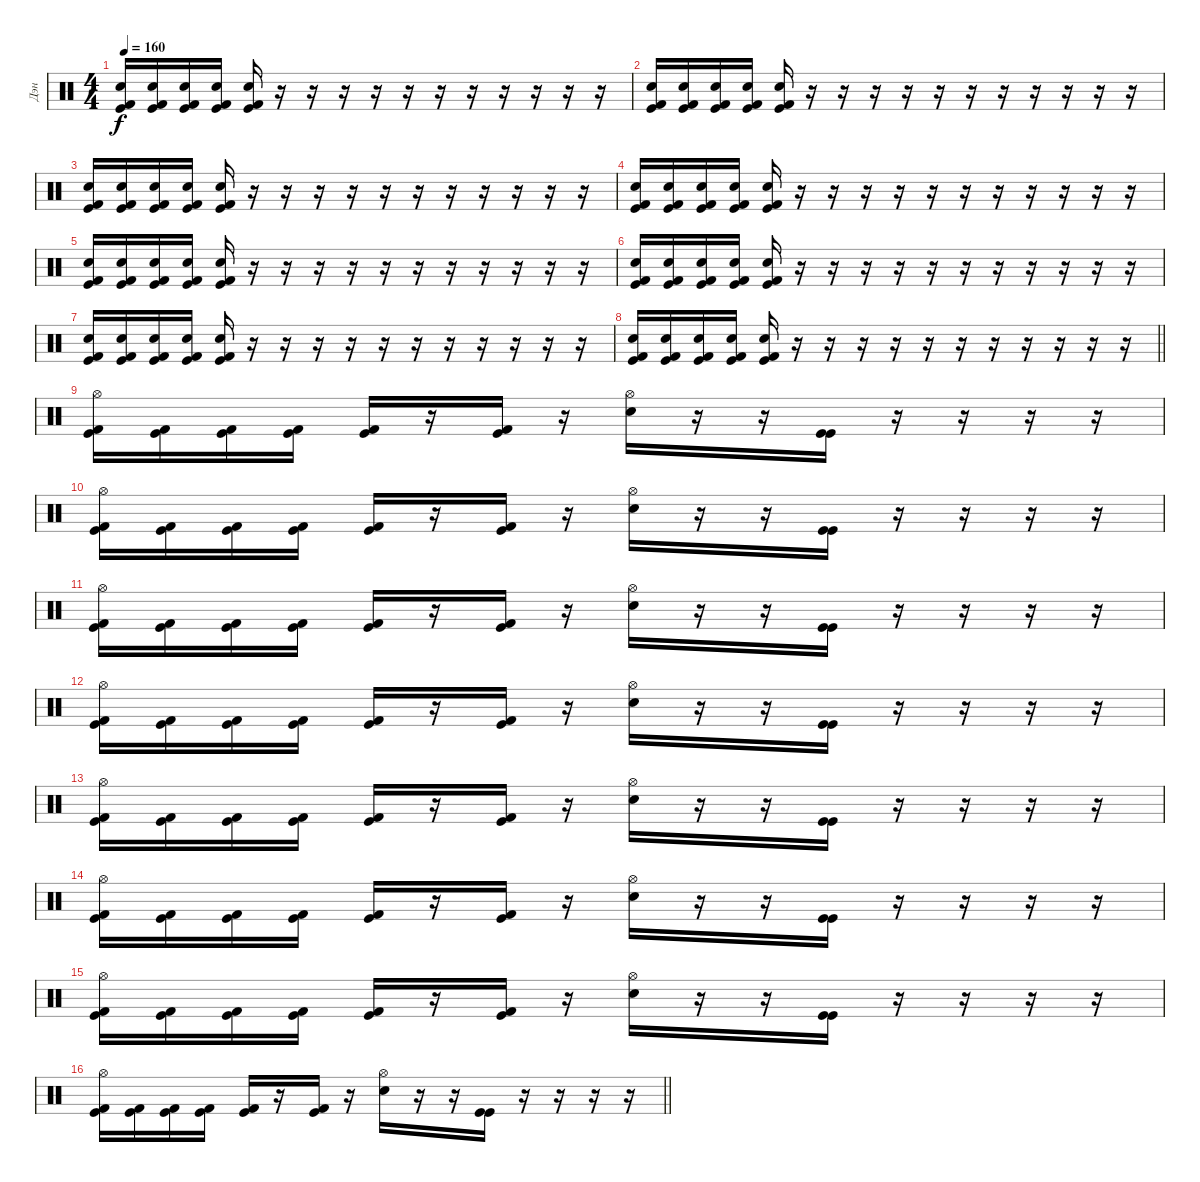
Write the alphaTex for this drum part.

\track ("Дэн" "Дэн") {instrument percussion}
\staff {score}
\articulation defaults
\ts (4 4)
\tempo 160
\clef neutral
\ks c
("Electric Snare (hit)" "Kick (hit)" "Kick (hit) 2").16{dy f} ("Electric Snare (hit)" "Kick (hit)" "Kick (hit) 2").16 ("Electric Snare (hit)" "Kick (hit)" "Kick (hit) 2").16 ("Electric Snare (hit)" "Kick (hit)" "Kick (hit) 2").16 ("Electric Snare (hit)" "Kick (hit)" "Kick (hit) 2").16 r.16 r.16 r.16 r.16 r.16 r.16 r.16 r.16 r.16 r.16 r.16 |
("Electric Snare (hit)" "Kick (hit)" "Kick (hit) 2").16 ("Electric Snare (hit)" "Kick (hit)" "Kick (hit) 2").16 ("Electric Snare (hit)" "Kick (hit)" "Kick (hit) 2").16 ("Electric Snare (hit)" "Kick (hit)" "Kick (hit) 2").16 ("Electric Snare (hit)" "Kick (hit)" "Kick (hit) 2").16 r.16 r.16 r.16 r.16 r.16 r.16 r.16 r.16 r.16 r.16 r.16 |
("Electric Snare (hit)" "Kick (hit)" "Kick (hit) 2").16 ("Electric Snare (hit)" "Kick (hit)" "Kick (hit) 2").16 ("Electric Snare (hit)" "Kick (hit)" "Kick (hit) 2").16 ("Electric Snare (hit)" "Kick (hit)" "Kick (hit) 2").16 ("Electric Snare (hit)" "Kick (hit)" "Kick (hit) 2").16 r.16 r.16 r.16 r.16 r.16 r.16 r.16 r.16 r.16 r.16 r.16 |
("Electric Snare (hit)" "Kick (hit)" "Kick (hit) 2").16 ("Electric Snare (hit)" "Kick (hit)" "Kick (hit) 2").16 ("Electric Snare (hit)" "Kick (hit)" "Kick (hit) 2").16 ("Electric Snare (hit)" "Kick (hit)" "Kick (hit) 2").16 ("Electric Snare (hit)" "Kick (hit)" "Kick (hit) 2").16 r.16 r.16 r.16 r.16 r.16 r.16 r.16 r.16 r.16 r.16 r.16 |
("Electric Snare (hit)" "Kick (hit)" "Kick (hit) 2").16 ("Electric Snare (hit)" "Kick (hit)" "Kick (hit) 2").16 ("Electric Snare (hit)" "Kick (hit)" "Kick (hit) 2").16 ("Electric Snare (hit)" "Kick (hit)" "Kick (hit) 2").16 ("Electric Snare (hit)" "Kick (hit)" "Kick (hit) 2").16 r.16 r.16 r.16 r.16 r.16 r.16 r.16 r.16 r.16 r.16 r.16 |
("Electric Snare (hit)" "Kick (hit)" "Kick (hit) 2").16 ("Electric Snare (hit)" "Kick (hit)" "Kick (hit) 2").16 ("Electric Snare (hit)" "Kick (hit)" "Kick (hit) 2").16 ("Electric Snare (hit)" "Kick (hit)" "Kick (hit) 2").16 ("Electric Snare (hit)" "Kick (hit)" "Kick (hit) 2").16 r.16 r.16 r.16 r.16 r.16 r.16 r.16 r.16 r.16 r.16 r.16 |
("Electric Snare (hit)" "Kick (hit)" "Kick (hit) 2").16 ("Electric Snare (hit)" "Kick (hit)" "Kick (hit) 2").16 ("Electric Snare (hit)" "Kick (hit)" "Kick (hit) 2").16 ("Electric Snare (hit)" "Kick (hit)" "Kick (hit) 2").16 ("Electric Snare (hit)" "Kick (hit)" "Kick (hit) 2").16 r.16 r.16 r.16 r.16 r.16 r.16 r.16 r.16 r.16 r.16 r.16 |
\barLineRight lightlight
("Electric Snare (hit)" "Kick (hit)" "Kick (hit) 2").16 ("Electric Snare (hit)" "Kick (hit)" "Kick (hit) 2").16 ("Electric Snare (hit)" "Kick (hit)" "Kick (hit) 2").16 ("Electric Snare (hit)" "Kick (hit)" "Kick (hit) 2").16 ("Electric Snare (hit)" "Kick (hit)" "Kick (hit) 2").16 r.16 r.16 r.16 r.16 r.16 r.16 r.16 r.16 r.16 r.16 r.16 |
("Hi-Hat (open)" "Kick (hit)" "Kick (hit) 2").16 ("Kick (hit)" "Kick (hit) 2").16 ("Kick (hit)" "Kick (hit) 2").16 ("Kick (hit)" "Kick (hit) 2").16 ("Kick (hit)" "Kick (hit) 2").16 r.16 ("Kick (hit)" "Kick (hit) 2").16 r.16 ("Hi-Hat (open)" "Electric Snare (hit)").16 r.16 r.16 ("Kick (hit)" "Kick (hit)").16 r.16 r.16 r.16 r.16 |
("Hi-Hat (open)" "Kick (hit)" "Kick (hit) 2").16 ("Kick (hit)" "Kick (hit) 2").16 ("Kick (hit)" "Kick (hit) 2").16 ("Kick (hit)" "Kick (hit) 2").16 ("Kick (hit)" "Kick (hit) 2").16 r.16 ("Kick (hit)" "Kick (hit) 2").16 r.16 ("Hi-Hat (open)" "Electric Snare (hit)").16 r.16 r.16 ("Kick (hit)" "Kick (hit)").16 r.16 r.16 r.16 r.16 |
("Hi-Hat (open)" "Kick (hit)" "Kick (hit) 2").16 ("Kick (hit)" "Kick (hit) 2").16 ("Kick (hit)" "Kick (hit) 2").16 ("Kick (hit)" "Kick (hit) 2").16 ("Kick (hit)" "Kick (hit) 2").16 r.16 ("Kick (hit)" "Kick (hit) 2").16 r.16 ("Hi-Hat (open)" "Electric Snare (hit)").16 r.16 r.16 ("Kick (hit)" "Kick (hit)").16 r.16 r.16 r.16 r.16 |
("Hi-Hat (open)" "Kick (hit)" "Kick (hit) 2").16 ("Kick (hit)" "Kick (hit) 2").16 ("Kick (hit)" "Kick (hit) 2").16 ("Kick (hit)" "Kick (hit) 2").16 ("Kick (hit)" "Kick (hit) 2").16 r.16 ("Kick (hit)" "Kick (hit) 2").16 r.16 ("Hi-Hat (open)" "Electric Snare (hit)").16 r.16 r.16 ("Kick (hit)" "Kick (hit)").16 r.16 r.16 r.16 r.16 |
("Hi-Hat (open)" "Kick (hit)" "Kick (hit) 2").16 ("Kick (hit)" "Kick (hit) 2").16 ("Kick (hit)" "Kick (hit) 2").16 ("Kick (hit)" "Kick (hit) 2").16 ("Kick (hit)" "Kick (hit) 2").16 r.16 ("Kick (hit)" "Kick (hit) 2").16 r.16 ("Hi-Hat (open)" "Electric Snare (hit)").16 r.16 r.16 ("Kick (hit)" "Kick (hit)").16 r.16 r.16 r.16 r.16 |
("Hi-Hat (open)" "Kick (hit)" "Kick (hit) 2").16 ("Kick (hit)" "Kick (hit) 2").16 ("Kick (hit)" "Kick (hit) 2").16 ("Kick (hit)" "Kick (hit) 2").16 ("Kick (hit)" "Kick (hit) 2").16 r.16 ("Kick (hit)" "Kick (hit) 2").16 r.16 ("Hi-Hat (open)" "Electric Snare (hit)").16 r.16 r.16 ("Kick (hit)" "Kick (hit)").16 r.16 r.16 r.16 r.16 |
("Hi-Hat (open)" "Kick (hit)" "Kick (hit) 2").16 ("Kick (hit)" "Kick (hit) 2").16 ("Kick (hit)" "Kick (hit) 2").16 ("Kick (hit)" "Kick (hit) 2").16 ("Kick (hit)" "Kick (hit) 2").16 r.16 ("Kick (hit)" "Kick (hit) 2").16 r.16 ("Hi-Hat (open)" "Electric Snare (hit)").16 r.16 r.16 ("Kick (hit)" "Kick (hit)").16 r.16 r.16 r.16 r.16 |
\barLineRight lightlight
("Hi-Hat (open)" "Kick (hit)" "Kick (hit) 2").16 ("Kick (hit)" "Kick (hit) 2").16 ("Kick (hit)" "Kick (hit) 2").16 ("Kick (hit)" "Kick (hit) 2").16 ("Kick (hit)" "Kick (hit) 2").16 r.16 ("Kick (hit)" "Kick (hit) 2").16 r.16 ("Hi-Hat (open)" "Electric Snare (hit)").16 r.16 r.16 ("Kick (hit)" "Kick (hit)").16 r.16 r.16 r.16 r.16
